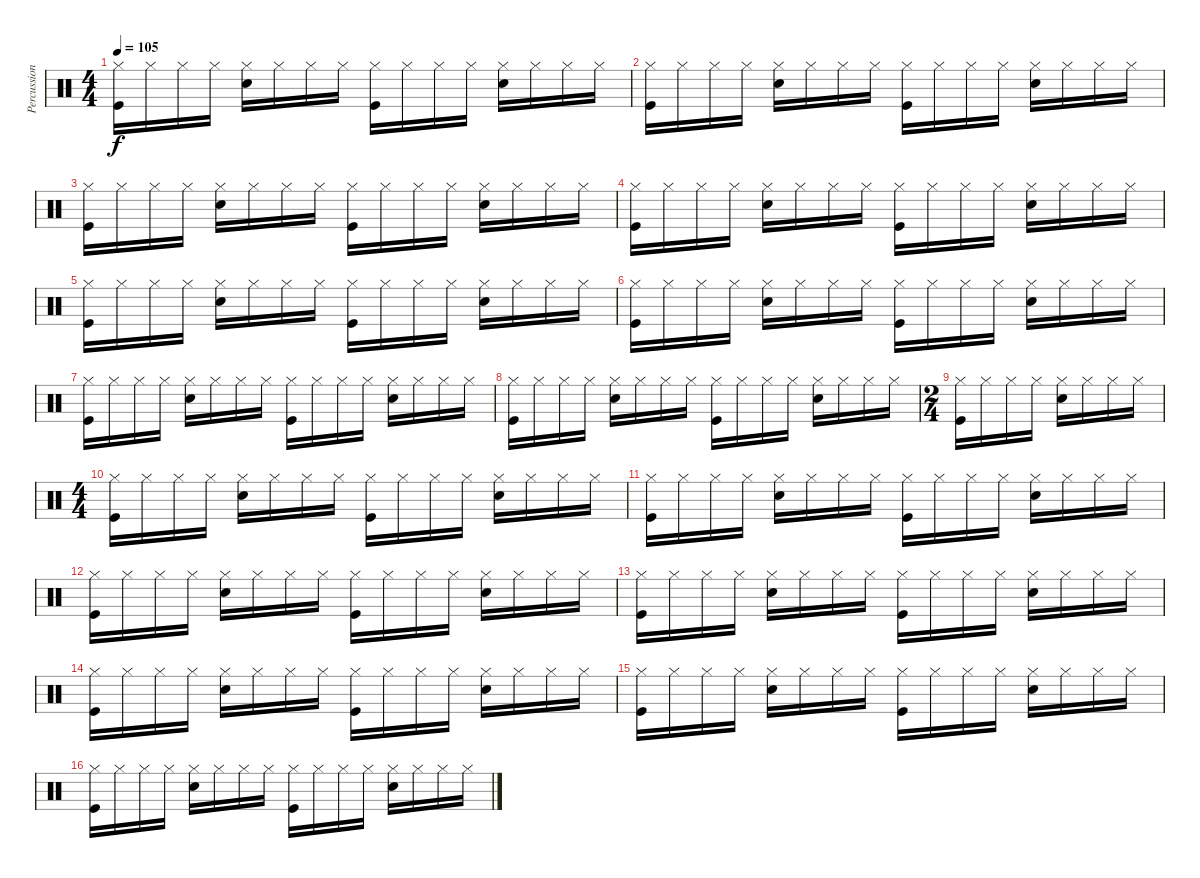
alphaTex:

\track ("Percussion" "Percussion") {instrument percussion}
\staff {score}
\articulation defaults
\ts (4 4)
\tempo 105
\clef neutral
\ks c
("Hi-Hat (closed)" "Kick (hit)").16{dy f} "Hi-Hat (closed)".16 "Hi-Hat (closed)".16 "Hi-Hat (closed)".16 ("Hi-Hat (closed)" "Snare (hit) 2").16 "Hi-Hat (closed)".16 "Hi-Hat (closed)".16 "Hi-Hat (closed)".16 ("Hi-Hat (closed)" "Kick (hit)").16 "Hi-Hat (closed)".16 "Hi-Hat (closed)".16 "Hi-Hat (closed)".16 ("Hi-Hat (closed)" "Snare (hit) 2").16 "Hi-Hat (closed)".16 "Hi-Hat (closed)".16 "Hi-Hat (closed)".16 |
("Hi-Hat (closed)" "Kick (hit)").16 "Hi-Hat (closed)".16 "Hi-Hat (closed)".16 "Hi-Hat (closed)".16 ("Hi-Hat (closed)" "Snare (hit) 2").16 "Hi-Hat (closed)".16 "Hi-Hat (closed)".16 "Hi-Hat (closed)".16 ("Hi-Hat (closed)" "Kick (hit)").16 "Hi-Hat (closed)".16 "Hi-Hat (closed)".16 "Hi-Hat (closed)".16 ("Hi-Hat (closed)" "Snare (hit) 2").16 "Hi-Hat (closed)".16 "Hi-Hat (closed)".16 "Hi-Hat (closed)".16 |
("Hi-Hat (closed)" "Kick (hit)").16 "Hi-Hat (closed)".16 "Hi-Hat (closed)".16 "Hi-Hat (closed)".16 ("Hi-Hat (closed)" "Snare (hit) 2").16 "Hi-Hat (closed)".16 "Hi-Hat (closed)".16 "Hi-Hat (closed)".16 ("Hi-Hat (closed)" "Kick (hit)").16 "Hi-Hat (closed)".16 "Hi-Hat (closed)".16 "Hi-Hat (closed)".16 ("Hi-Hat (closed)" "Snare (hit) 2").16 "Hi-Hat (closed)".16 "Hi-Hat (closed)".16 "Hi-Hat (closed)".16 |
("Hi-Hat (closed)" "Kick (hit)").16 "Hi-Hat (closed)".16 "Hi-Hat (closed)".16 "Hi-Hat (closed)".16 ("Hi-Hat (closed)" "Snare (hit) 2").16 "Hi-Hat (closed)".16 "Hi-Hat (closed)".16 "Hi-Hat (closed)".16 ("Hi-Hat (closed)" "Kick (hit)").16 "Hi-Hat (closed)".16 "Hi-Hat (closed)".16 "Hi-Hat (closed)".16 ("Hi-Hat (closed)" "Snare (hit) 2").16 "Hi-Hat (closed)".16 "Hi-Hat (closed)".16 "Hi-Hat (closed)".16 |
("Hi-Hat (closed)" "Kick (hit)").16 "Hi-Hat (closed)".16 "Hi-Hat (closed)".16 "Hi-Hat (closed)".16 ("Hi-Hat (closed)" "Snare (hit) 2").16 "Hi-Hat (closed)".16 "Hi-Hat (closed)".16 "Hi-Hat (closed)".16 ("Hi-Hat (closed)" "Kick (hit)").16 "Hi-Hat (closed)".16 "Hi-Hat (closed)".16 "Hi-Hat (closed)".16 ("Hi-Hat (closed)" "Snare (hit) 2").16 "Hi-Hat (closed)".16 "Hi-Hat (closed)".16 "Hi-Hat (closed)".16 |
("Hi-Hat (closed)" "Kick (hit)").16 "Hi-Hat (closed)".16 "Hi-Hat (closed)".16 "Hi-Hat (closed)".16 ("Hi-Hat (closed)" "Snare (hit) 2").16 "Hi-Hat (closed)".16 "Hi-Hat (closed)".16 "Hi-Hat (closed)".16 ("Hi-Hat (closed)" "Kick (hit)").16 "Hi-Hat (closed)".16 "Hi-Hat (closed)".16 "Hi-Hat (closed)".16 ("Hi-Hat (closed)" "Snare (hit) 2").16 "Hi-Hat (closed)".16 "Hi-Hat (closed)".16 "Hi-Hat (closed)".16 |
("Hi-Hat (closed)" "Kick (hit)").16 "Hi-Hat (closed)".16 "Hi-Hat (closed)".16 "Hi-Hat (closed)".16 ("Hi-Hat (closed)" "Snare (hit) 2").16 "Hi-Hat (closed)".16 "Hi-Hat (closed)".16 "Hi-Hat (closed)".16 ("Hi-Hat (closed)" "Kick (hit)").16 "Hi-Hat (closed)".16 "Hi-Hat (closed)".16 "Hi-Hat (closed)".16 ("Hi-Hat (closed)" "Snare (hit) 2").16 "Hi-Hat (closed)".16 "Hi-Hat (closed)".16 "Hi-Hat (closed)".16 |
("Hi-Hat (closed)" "Kick (hit)").16 "Hi-Hat (closed)".16 "Hi-Hat (closed)".16 "Hi-Hat (closed)".16 ("Hi-Hat (closed)" "Snare (hit) 2").16 "Hi-Hat (closed)".16 "Hi-Hat (closed)".16 "Hi-Hat (closed)".16 ("Hi-Hat (closed)" "Kick (hit)").16 "Hi-Hat (closed)".16 "Hi-Hat (closed)".16 "Hi-Hat (closed)".16 ("Hi-Hat (closed)" "Snare (hit) 2").16 "Hi-Hat (closed)".16 "Hi-Hat (closed)".16 "Hi-Hat (closed)".16 |
\ts (2 4)
("Hi-Hat (closed)" "Kick (hit)").16 "Hi-Hat (closed)".16 "Hi-Hat (closed)".16 "Hi-Hat (closed)".16 ("Hi-Hat (closed)" "Snare (hit) 2").16 "Hi-Hat (closed)".16 "Hi-Hat (closed)".16 "Hi-Hat (closed)".16 |
\ts (4 4)
("Hi-Hat (closed)" "Kick (hit)").16 "Hi-Hat (closed)".16 "Hi-Hat (closed)".16 "Hi-Hat (closed)".16 ("Hi-Hat (closed)" "Snare (hit) 2").16 "Hi-Hat (closed)".16 "Hi-Hat (closed)".16 "Hi-Hat (closed)".16 ("Hi-Hat (closed)" "Kick (hit)").16 "Hi-Hat (closed)".16 "Hi-Hat (closed)".16 "Hi-Hat (closed)".16 ("Hi-Hat (closed)" "Snare (hit) 2").16 "Hi-Hat (closed)".16 "Hi-Hat (closed)".16 "Hi-Hat (closed)".16 |
("Hi-Hat (closed)" "Kick (hit)").16 "Hi-Hat (closed)".16 "Hi-Hat (closed)".16 "Hi-Hat (closed)".16 ("Hi-Hat (closed)" "Snare (hit) 2").16 "Hi-Hat (closed)".16 "Hi-Hat (closed)".16 "Hi-Hat (closed)".16 ("Hi-Hat (closed)" "Kick (hit)").16 "Hi-Hat (closed)".16 "Hi-Hat (closed)".16 "Hi-Hat (closed)".16 ("Hi-Hat (closed)" "Snare (hit) 2").16 "Hi-Hat (closed)".16 "Hi-Hat (closed)".16 "Hi-Hat (closed)".16 |
("Hi-Hat (closed)" "Kick (hit)").16 "Hi-Hat (closed)".16 "Hi-Hat (closed)".16 "Hi-Hat (closed)".16 ("Hi-Hat (closed)" "Snare (hit) 2").16 "Hi-Hat (closed)".16 "Hi-Hat (closed)".16 "Hi-Hat (closed)".16 ("Hi-Hat (closed)" "Kick (hit)").16 "Hi-Hat (closed)".16 "Hi-Hat (closed)".16 "Hi-Hat (closed)".16 ("Hi-Hat (closed)" "Snare (hit) 2").16 "Hi-Hat (closed)".16 "Hi-Hat (closed)".16 "Hi-Hat (closed)".16 |
("Hi-Hat (closed)" "Kick (hit)").16 "Hi-Hat (closed)".16 "Hi-Hat (closed)".16 "Hi-Hat (closed)".16 ("Hi-Hat (closed)" "Snare (hit) 2").16 "Hi-Hat (closed)".16 "Hi-Hat (closed)".16 "Hi-Hat (closed)".16 ("Hi-Hat (closed)" "Kick (hit)").16 "Hi-Hat (closed)".16 "Hi-Hat (closed)".16 "Hi-Hat (closed)".16 ("Hi-Hat (closed)" "Snare (hit) 2").16 "Hi-Hat (closed)".16 "Hi-Hat (closed)".16 "Hi-Hat (closed)".16 |
("Hi-Hat (closed)" "Kick (hit)").16 "Hi-Hat (closed)".16 "Hi-Hat (closed)".16 "Hi-Hat (closed)".16 ("Hi-Hat (closed)" "Snare (hit) 2").16 "Hi-Hat (closed)".16 "Hi-Hat (closed)".16 "Hi-Hat (closed)".16 ("Hi-Hat (closed)" "Kick (hit)").16 "Hi-Hat (closed)".16 "Hi-Hat (closed)".16 "Hi-Hat (closed)".16 ("Hi-Hat (closed)" "Snare (hit) 2").16 "Hi-Hat (closed)".16 "Hi-Hat (closed)".16 "Hi-Hat (closed)".16 |
("Hi-Hat (closed)" "Kick (hit)").16 "Hi-Hat (closed)".16 "Hi-Hat (closed)".16 "Hi-Hat (closed)".16 ("Hi-Hat (closed)" "Snare (hit) 2").16 "Hi-Hat (closed)".16 "Hi-Hat (closed)".16 "Hi-Hat (closed)".16 ("Hi-Hat (closed)" "Kick (hit)").16 "Hi-Hat (closed)".16 "Hi-Hat (closed)".16 "Hi-Hat (closed)".16 ("Hi-Hat (closed)" "Snare (hit) 2").16 "Hi-Hat (closed)".16 "Hi-Hat (closed)".16 "Hi-Hat (closed)".16 |
("Hi-Hat (closed)" "Kick (hit)").16 "Hi-Hat (closed)".16 "Hi-Hat (closed)".16 "Hi-Hat (closed)".16 ("Hi-Hat (closed)" "Snare (hit) 2").16 "Hi-Hat (closed)".16 "Hi-Hat (closed)".16 "Hi-Hat (closed)".16 ("Hi-Hat (closed)" "Kick (hit)").16 "Hi-Hat (closed)".16 "Hi-Hat (closed)".16 "Hi-Hat (closed)".16 ("Hi-Hat (closed)" "Snare (hit) 2").16 "Hi-Hat (closed)".16 "Hi-Hat (closed)".16 "Hi-Hat (closed)".16
